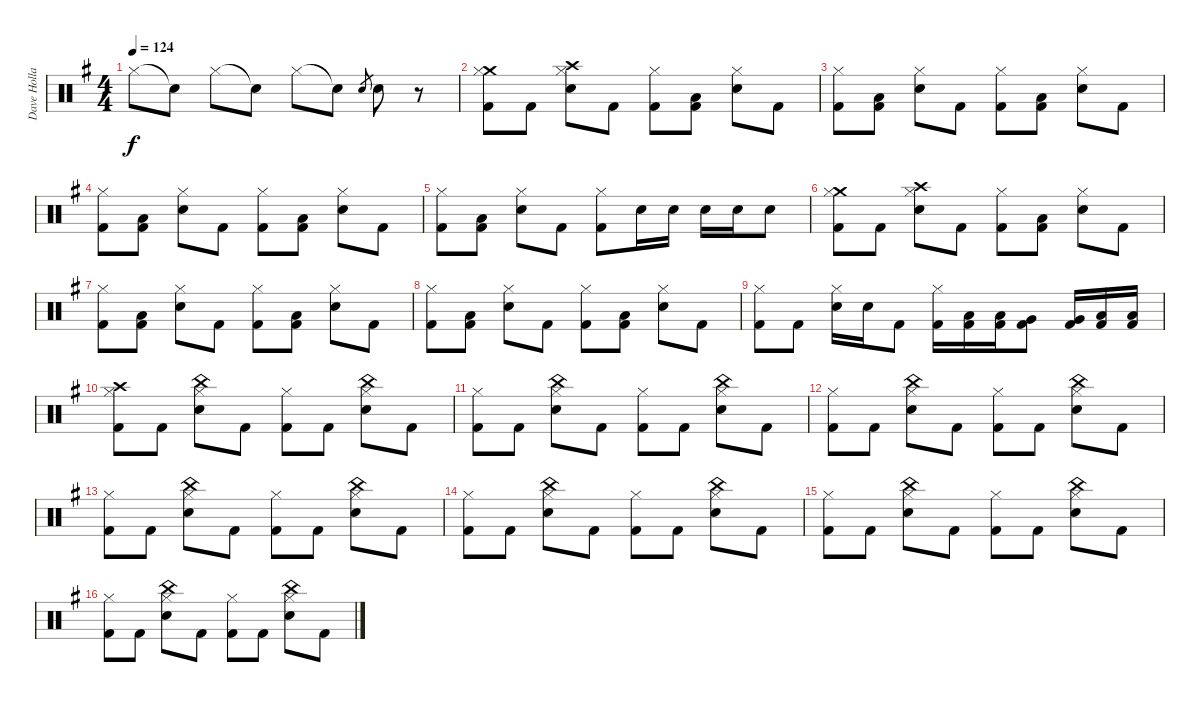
\track ("Dave Holland" "Dave Holla") {instrument percussion}
\staff {score}
\articulation defaults
\ts (4 4)
\tempo 124
\clef neutral
\ks g "Hi-Hat (closed)".8{dy f} "Snare (hit)"{t}.8 "Hi-Hat (closed)".8 "Snare (hit)"{t}.8 "Hi-Hat (closed)".8 "Snare (hit)"{t}.8 "Snare (hit) 2".8{gr} "Snare (hit) 2".8
r.8 |
("Kick (hit) 2" "Crash medium (hit)" "Hi-Hat (closed)").8 "Kick (hit) 2".8 ("Snare (hit) 2" "Crash high (hit)" "Hi-Hat (closed)").8 "Kick (hit) 2".8 ("Kick (hit) 2" "Hi-Hat (closed)").8 ("Kick (hit) 2" "Low Tom (hit)").8 ("Snare (hit) 2" "Hi-Hat (closed)").8 "Kick (hit) 2".8 |
("Kick (hit) 2" "Hi-Hat (closed)").8 ("Kick (hit) 2" "Low Tom (hit)").8 ("Snare (hit) 2" "Hi-Hat (closed)").8 "Kick (hit) 2".8 ("Kick (hit) 2" "Hi-Hat (closed)").8 ("Kick (hit) 2" "Low Tom (hit)").8 ("Snare (hit) 2" "Hi-Hat (closed)").8 "Kick (hit) 2".8 |
("Kick (hit) 2" "Hi-Hat (closed)").8 ("Kick (hit) 2" "Low Tom (hit)").8 ("Snare (hit) 2" "Hi-Hat (closed)").8 "Kick (hit) 2".8 ("Kick (hit) 2" "Hi-Hat (closed)").8 ("Kick (hit) 2" "Low Tom (hit)").8 ("Snare (hit) 2" "Hi-Hat (closed)").8 "Kick (hit) 2".8 |
("Kick (hit) 2" "Hi-Hat (closed)").8 ("Kick (hit) 2" "Low Tom (hit)").8 ("Snare (hit) 2" "Hi-Hat (closed)").8 "Kick (hit) 2".8 ("Kick (hit) 2" "Hi-Hat (closed)").8 "Snare (hit) 2".16 "Snare (hit) 2".16 "Snare (hit) 2".16 "Snare (hit) 2".16 "Snare (hit) 2".8 |
("Kick (hit) 2" "Crash medium (hit)" "Hi-Hat (closed)").8 "Kick (hit) 2".8 ("Snare (hit) 2" "Crash high (hit)" "Hi-Hat (closed)").8 "Kick (hit) 2".8 ("Kick (hit) 2" "Hi-Hat (closed)").8 ("Kick (hit) 2" "Low Tom (hit)").8 ("Snare (hit) 2" "Hi-Hat (closed)").8 "Kick (hit) 2".8 |
("Kick (hit) 2" "Hi-Hat (closed)").8 ("Kick (hit) 2" "Low Tom (hit)").8 ("Snare (hit) 2" "Hi-Hat (closed)").8 "Kick (hit) 2".8 ("Kick (hit) 2" "Hi-Hat (closed)").8 ("Kick (hit) 2" "Low Tom (hit)").8 ("Snare (hit) 2" "Hi-Hat (closed)").8 "Kick (hit) 2".8 |
("Kick (hit) 2" "Hi-Hat (closed)").8 ("Kick (hit) 2" "Low Tom (hit)").8 ("Snare (hit) 2" "Hi-Hat (closed)").8 "Kick (hit) 2".8 ("Kick (hit) 2" "Hi-Hat (closed)").8 ("Kick (hit) 2" "Low Tom (hit)").8 ("Snare (hit) 2" "Hi-Hat (closed)").8 "Kick (hit) 2".8 |
("Kick (hit) 2" "Hi-Hat (closed)").8 "Kick (hit) 2".8 ("Snare (hit) 2" "Hi-Hat (closed)").16 "Snare (hit) 2".16 "Kick (hit) 2".8 ("Kick (hit) 2" "Hi-Hat (closed)").16 ("Kick (hit) 2" "Low Tom (hit)").16 ("Kick (hit) 2" "Low Tom (hit)").16 ("Kick (hit) 2" "Very Low Tom (hit)").8 ("Kick (hit) 2" "Very Low Tom (hit)").16 ("Kick (hit) 2" "Low Floor Tom (hit)").16 ("Kick (hit) 2" "Low Floor Tom (hit)").16 |
("Kick (hit) 2" "Crash high (hit)" "Hi-Hat (closed)").8 "Kick (hit) 2".8 ("Snare (hit) 2" "China (hit)" "Hi-Hat (closed)").8 "Kick (hit) 2".8 ("Kick (hit) 2" "Hi-Hat (closed)").8 "Kick (hit) 2".8 ("Snare (hit) 2" "China (hit)" "Hi-Hat (closed)").8 "Kick (hit) 2".8 |
("Kick (hit) 2" "Hi-Hat (closed)").8 "Kick (hit) 2".8 ("Snare (hit) 2" "China (hit)" "Hi-Hat (closed)").8 "Kick (hit) 2".8 ("Kick (hit) 2" "Hi-Hat (closed)").8 "Kick (hit) 2".8 ("Snare (hit) 2" "China (hit)" "Hi-Hat (closed)").8 "Kick (hit) 2".8 |
("Kick (hit) 2" "Hi-Hat (closed)").8 "Kick (hit) 2".8 ("Snare (hit) 2" "China (hit)" "Hi-Hat (closed)").8 "Kick (hit) 2".8 ("Kick (hit) 2" "Hi-Hat (closed)").8 "Kick (hit) 2".8 ("Snare (hit) 2" "China (hit)" "Hi-Hat (closed)").8 "Kick (hit) 2".8 |
("Kick (hit) 2" "Hi-Hat (closed)").8 "Kick (hit) 2".8 ("Snare (hit) 2" "China (hit)" "Hi-Hat (closed)").8 "Kick (hit) 2".8 ("Kick (hit) 2" "Hi-Hat (closed)").8 "Kick (hit) 2".8 ("Snare (hit) 2" "China (hit)" "Hi-Hat (closed)").8 "Kick (hit) 2".8 |
("Kick (hit) 2" "Hi-Hat (closed)").8 "Kick (hit) 2".8 ("Snare (hit) 2" "China (hit)" "Hi-Hat (closed)").8 "Kick (hit) 2".8 ("Kick (hit) 2" "Hi-Hat (closed)").8 "Kick (hit) 2".8 ("Snare (hit) 2" "China (hit)" "Hi-Hat (closed)").8 "Kick (hit) 2".8 |
("Kick (hit) 2" "Hi-Hat (closed)").8 "Kick (hit) 2".8 ("Snare (hit) 2" "China (hit)" "Hi-Hat (closed)").8 "Kick (hit) 2".8 ("Kick (hit) 2" "Hi-Hat (closed)").8 "Kick (hit) 2".8 ("Snare (hit) 2" "China (hit)" "Hi-Hat (closed)").8 "Kick (hit) 2".8 |
("Kick (hit) 2" "Hi-Hat (closed)").8 "Kick (hit) 2".8 ("Snare (hit) 2" "China (hit)" "Hi-Hat (closed)").8 "Kick (hit) 2".8 ("Kick (hit) 2" "Hi-Hat (closed)").8 "Kick (hit) 2".8 ("Snare (hit) 2" "China (hit)" "Hi-Hat (closed)").8 "Kick (hit) 2".8
